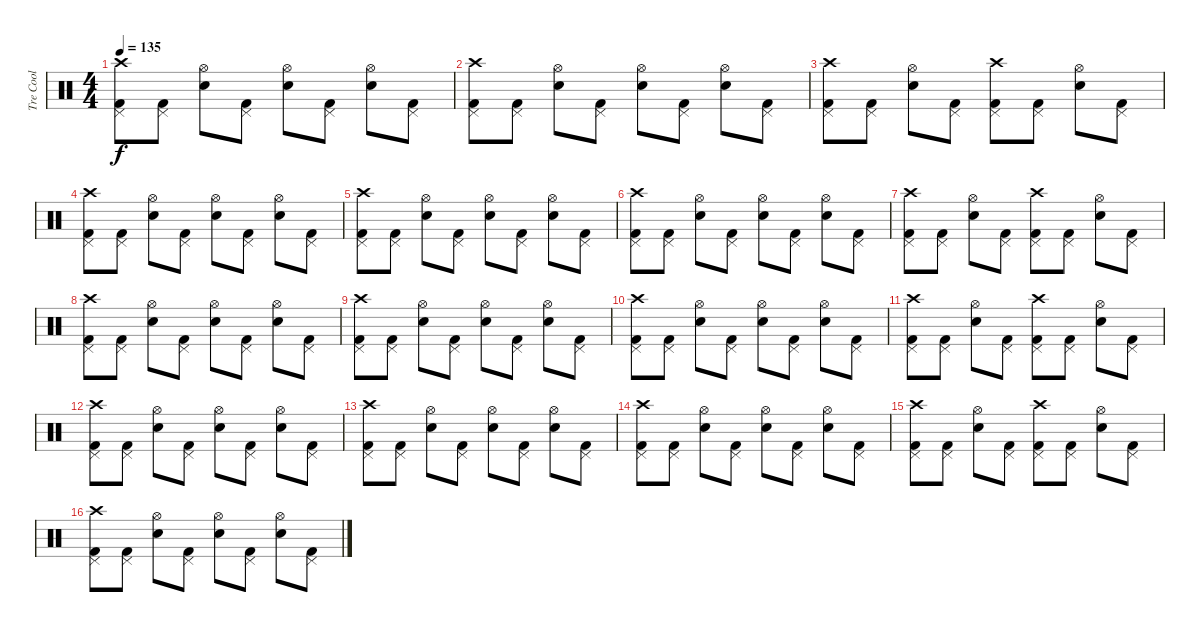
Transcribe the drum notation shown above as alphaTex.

\track ("Tre Cool" "Tre Cool") {instrument percussion}
\staff {score}
\articulation defaults
\ts (4 4)
\tempo 135
\clef neutral
\ks c
("Pedal Hi-Hat (hit)" "Kick (hit) 2" "Crash high (hit)").8{dy f} ("Pedal Hi-Hat (hit)" "Kick (hit) 2").8 ("Hi-Hat (open)" "Electric Snare (hit)").8 ("Pedal Hi-Hat (hit)" "Kick (hit) 2").8 ("Hi-Hat (open)" "Electric Snare (hit)").8 ("Pedal Hi-Hat (hit)" "Kick (hit) 2").8 ("Hi-Hat (open)" "Electric Snare (hit)").8 ("Pedal Hi-Hat (hit)" "Kick (hit) 2").8 |
("Pedal Hi-Hat (hit)" "Kick (hit) 2" "Crash high (hit)").8 ("Pedal Hi-Hat (hit)" "Kick (hit) 2").8 ("Hi-Hat (open)" "Electric Snare (hit)").8 ("Pedal Hi-Hat (hit)" "Kick (hit) 2").8 ("Hi-Hat (open)" "Electric Snare (hit)").8 ("Pedal Hi-Hat (hit)" "Kick (hit) 2").8 ("Hi-Hat (open)" "Electric Snare (hit)").8 ("Pedal Hi-Hat (hit)" "Kick (hit) 2").8 |
("Pedal Hi-Hat (hit)" "Kick (hit) 2" "Crash high (hit)").8 ("Pedal Hi-Hat (hit)" "Kick (hit) 2").8 ("Hi-Hat (open)" "Electric Snare (hit)").8 ("Pedal Hi-Hat (hit)" "Kick (hit) 2").8 ("Pedal Hi-Hat (hit)" "Kick (hit) 2" "Crash high (hit)").8 ("Pedal Hi-Hat (hit)" "Kick (hit) 2").8 ("Hi-Hat (open)" "Electric Snare (hit)").8 ("Pedal Hi-Hat (hit)" "Kick (hit) 2").8 |
("Pedal Hi-Hat (hit)" "Kick (hit) 2" "Crash high (hit)").8 ("Pedal Hi-Hat (hit)" "Kick (hit) 2").8 ("Hi-Hat (open)" "Electric Snare (hit)").8 ("Pedal Hi-Hat (hit)" "Kick (hit) 2").8 ("Hi-Hat (open)" "Electric Snare (hit)").8 ("Pedal Hi-Hat (hit)" "Kick (hit) 2").8 ("Hi-Hat (open)" "Electric Snare (hit)").8 ("Pedal Hi-Hat (hit)" "Kick (hit) 2").8 |
("Pedal Hi-Hat (hit)" "Kick (hit) 2" "Crash high (hit)").8 ("Pedal Hi-Hat (hit)" "Kick (hit) 2").8 ("Hi-Hat (open)" "Electric Snare (hit)").8 ("Pedal Hi-Hat (hit)" "Kick (hit) 2").8 ("Hi-Hat (open)" "Electric Snare (hit)").8 ("Pedal Hi-Hat (hit)" "Kick (hit) 2").8 ("Hi-Hat (open)" "Electric Snare (hit)").8 ("Pedal Hi-Hat (hit)" "Kick (hit) 2").8 |
("Pedal Hi-Hat (hit)" "Kick (hit) 2" "Crash high (hit)").8 ("Pedal Hi-Hat (hit)" "Kick (hit) 2").8 ("Hi-Hat (open)" "Electric Snare (hit)").8 ("Pedal Hi-Hat (hit)" "Kick (hit) 2").8 ("Hi-Hat (open)" "Electric Snare (hit)").8 ("Pedal Hi-Hat (hit)" "Kick (hit) 2").8 ("Hi-Hat (open)" "Electric Snare (hit)").8 ("Pedal Hi-Hat (hit)" "Kick (hit) 2").8 |
("Pedal Hi-Hat (hit)" "Kick (hit) 2" "Crash high (hit)").8 ("Pedal Hi-Hat (hit)" "Kick (hit) 2").8 ("Hi-Hat (open)" "Electric Snare (hit)").8 ("Pedal Hi-Hat (hit)" "Kick (hit) 2").8 ("Pedal Hi-Hat (hit)" "Kick (hit) 2" "Crash high (hit)").8 ("Pedal Hi-Hat (hit)" "Kick (hit) 2").8 ("Hi-Hat (open)" "Electric Snare (hit)").8 ("Pedal Hi-Hat (hit)" "Kick (hit) 2").8 |
("Pedal Hi-Hat (hit)" "Kick (hit) 2" "Crash high (hit)").8 ("Pedal Hi-Hat (hit)" "Kick (hit) 2").8 ("Hi-Hat (open)" "Electric Snare (hit)").8 ("Pedal Hi-Hat (hit)" "Kick (hit) 2").8 ("Hi-Hat (open)" "Electric Snare (hit)").8 ("Pedal Hi-Hat (hit)" "Kick (hit) 2").8 ("Hi-Hat (open)" "Electric Snare (hit)").8 ("Pedal Hi-Hat (hit)" "Kick (hit) 2").8 |
("Pedal Hi-Hat (hit)" "Kick (hit) 2" "Crash high (hit)").8 ("Pedal Hi-Hat (hit)" "Kick (hit) 2").8 ("Hi-Hat (open)" "Electric Snare (hit)").8 ("Pedal Hi-Hat (hit)" "Kick (hit) 2").8 ("Hi-Hat (open)" "Electric Snare (hit)").8 ("Pedal Hi-Hat (hit)" "Kick (hit) 2").8 ("Hi-Hat (open)" "Electric Snare (hit)").8 ("Pedal Hi-Hat (hit)" "Kick (hit) 2").8 |
("Pedal Hi-Hat (hit)" "Kick (hit) 2" "Crash high (hit)").8 ("Pedal Hi-Hat (hit)" "Kick (hit) 2").8 ("Hi-Hat (open)" "Electric Snare (hit)").8 ("Pedal Hi-Hat (hit)" "Kick (hit) 2").8 ("Hi-Hat (open)" "Electric Snare (hit)").8 ("Pedal Hi-Hat (hit)" "Kick (hit) 2").8 ("Hi-Hat (open)" "Electric Snare (hit)").8 ("Pedal Hi-Hat (hit)" "Kick (hit) 2").8 |
("Pedal Hi-Hat (hit)" "Kick (hit) 2" "Crash high (hit)").8 ("Pedal Hi-Hat (hit)" "Kick (hit) 2").8 ("Hi-Hat (open)" "Electric Snare (hit)").8 ("Pedal Hi-Hat (hit)" "Kick (hit) 2").8 ("Pedal Hi-Hat (hit)" "Kick (hit) 2" "Crash high (hit)").8 ("Pedal Hi-Hat (hit)" "Kick (hit) 2").8 ("Hi-Hat (open)" "Electric Snare (hit)").8 ("Pedal Hi-Hat (hit)" "Kick (hit) 2").8 |
("Pedal Hi-Hat (hit)" "Kick (hit) 2" "Crash high (hit)").8 ("Pedal Hi-Hat (hit)" "Kick (hit) 2").8 ("Hi-Hat (open)" "Electric Snare (hit)").8 ("Pedal Hi-Hat (hit)" "Kick (hit) 2").8 ("Hi-Hat (open)" "Electric Snare (hit)").8 ("Pedal Hi-Hat (hit)" "Kick (hit) 2").8 ("Hi-Hat (open)" "Electric Snare (hit)").8 ("Pedal Hi-Hat (hit)" "Kick (hit) 2").8 |
("Pedal Hi-Hat (hit)" "Kick (hit) 2" "Crash high (hit)").8 ("Pedal Hi-Hat (hit)" "Kick (hit) 2").8 ("Hi-Hat (open)" "Electric Snare (hit)").8 ("Pedal Hi-Hat (hit)" "Kick (hit) 2").8 ("Hi-Hat (open)" "Electric Snare (hit)").8 ("Pedal Hi-Hat (hit)" "Kick (hit) 2").8 ("Hi-Hat (open)" "Electric Snare (hit)").8 ("Pedal Hi-Hat (hit)" "Kick (hit) 2").8 |
("Pedal Hi-Hat (hit)" "Kick (hit) 2" "Crash high (hit)").8 ("Pedal Hi-Hat (hit)" "Kick (hit) 2").8 ("Hi-Hat (open)" "Electric Snare (hit)").8 ("Pedal Hi-Hat (hit)" "Kick (hit) 2").8 ("Hi-Hat (open)" "Electric Snare (hit)").8 ("Pedal Hi-Hat (hit)" "Kick (hit) 2").8 ("Hi-Hat (open)" "Electric Snare (hit)").8 ("Pedal Hi-Hat (hit)" "Kick (hit) 2").8 |
("Pedal Hi-Hat (hit)" "Kick (hit) 2" "Crash high (hit)").8 ("Pedal Hi-Hat (hit)" "Kick (hit) 2").8 ("Hi-Hat (open)" "Electric Snare (hit)").8 ("Pedal Hi-Hat (hit)" "Kick (hit) 2").8 ("Pedal Hi-Hat (hit)" "Kick (hit) 2" "Crash high (hit)").8 ("Pedal Hi-Hat (hit)" "Kick (hit) 2").8 ("Hi-Hat (open)" "Electric Snare (hit)").8 ("Pedal Hi-Hat (hit)" "Kick (hit) 2").8 |
("Pedal Hi-Hat (hit)" "Kick (hit) 2" "Crash high (hit)").8 ("Pedal Hi-Hat (hit)" "Kick (hit) 2").8 ("Hi-Hat (open)" "Electric Snare (hit)").8 ("Pedal Hi-Hat (hit)" "Kick (hit) 2").8 ("Hi-Hat (open)" "Electric Snare (hit)").8 ("Pedal Hi-Hat (hit)" "Kick (hit) 2").8 ("Hi-Hat (open)" "Electric Snare (hit)").8 ("Pedal Hi-Hat (hit)" "Kick (hit) 2").8
